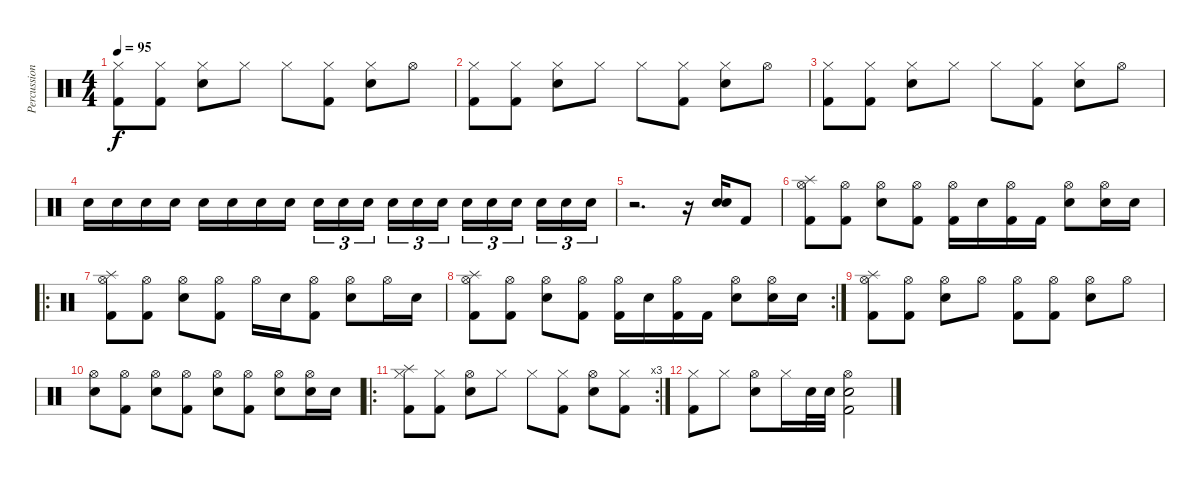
\track ("Percussions" "Percussion") {instrument percussion}
\staff {score}
\articulation defaults
\ts (4 4)
\tempo 95
\clef neutral
\ks c
("Hi-Hat (closed)" "Kick (hit) 2").8{dy f} ("Hi-Hat (closed)" "Kick (hit) 2").8 ("Hi-Hat (closed)" "Snare (hit) 2").8 "Hi-Hat (closed)".8 "Hi-Hat (closed)".8 ("Hi-Hat (closed)" "Kick (hit) 2").8 ("Hi-Hat (closed)" "Snare (hit) 2").8 "Hi-Hat (open)".8 |
("Hi-Hat (closed)" "Kick (hit) 2").8 ("Hi-Hat (closed)" "Kick (hit) 2").8 ("Hi-Hat (closed)" "Snare (hit) 2").8 "Hi-Hat (closed)".8 "Hi-Hat (closed)".8 ("Hi-Hat (closed)" "Kick (hit) 2").8 ("Hi-Hat (closed)" "Snare (hit) 2").8 "Hi-Hat (open)".8 |
("Hi-Hat (closed)" "Kick (hit) 2").8 ("Hi-Hat (closed)" "Kick (hit) 2").8 ("Hi-Hat (closed)" "Snare (hit) 2").8 "Hi-Hat (closed)".8 "Hi-Hat (closed)".8 ("Hi-Hat (closed)" "Kick (hit) 2").8 ("Hi-Hat (closed)" "Snare (hit) 2").8 "Hi-Hat (open)".8 |
"Snare (hit) 2".16 "Snare (hit) 2".16 "Snare (hit) 2".16 "Snare (hit) 2".16 "Snare (hit) 2".16 "Snare (hit) 2".16 "Snare (hit) 2".16 "Snare (hit) 2".16 "Snare (hit) 2".16{tu (3 2)} "Snare (hit) 2".16{tu (3 2)} "Snare (hit) 2".16{tu (3 2)} "Snare (hit) 2".16{tu (3 2)} "Snare (hit) 2".16{tu (3 2)} "Snare (hit) 2".16{tu (3 2)} "Snare (hit) 2".16{tu (3 2)} "Snare (hit) 2".16{tu (3 2)} "Snare (hit) 2".16{tu (3 2)} "Snare (hit) 2".16{tu (3 2)} "Snare (hit) 2".16{tu (3 2)} "Snare (hit) 2".16{tu (3 2)} |
r.2{d} r.16 ("Snare (hit) 2" "Snare (hit) 2").16 "Kick (hit) 2".8 |
("Splash (hit)" "Hi-Hat (open)" "Kick (hit) 2").8 ("Hi-Hat (open)" "Kick (hit) 2").8 ("Hi-Hat (open)" "Snare (hit) 2").8 ("Hi-Hat (open)" "Kick (hit) 2").8 ("Hi-Hat (open)" "Kick (hit) 2").16 "Snare (hit) 2".16 ("Hi-Hat (open)" "Kick (hit) 2").16 "Kick (hit) 2".16 ("Hi-Hat (open)" "Snare (hit) 2").8 ("Hi-Hat (open)" "Snare (hit) 2").16 "Snare (hit) 2".16 |
\ro
("Splash (hit)" "Hi-Hat (open)" "Kick (hit) 2").8 ("Hi-Hat (open)" "Kick (hit) 2").8 ("Hi-Hat (open)" "Snare (hit) 2").8 ("Hi-Hat (open)" "Kick (hit) 2").8 "Hi-Hat (open)".16 "Snare (hit) 2".16 ("Hi-Hat (open)" "Kick (hit) 2").8 ("Hi-Hat (open)" "Snare (hit) 2").8 "Hi-Hat (open)".16 "Snare (hit) 2".16 |
\rc 2
("Splash (hit)" "Hi-Hat (open)" "Kick (hit) 2").8 ("Hi-Hat (open)" "Kick (hit) 2").8 ("Hi-Hat (open)" "Snare (hit) 2").8 ("Hi-Hat (open)" "Kick (hit) 2").8 ("Hi-Hat (open)" "Kick (hit) 2").16 "Snare (hit) 2".16 ("Hi-Hat (open)" "Kick (hit) 2").16 "Kick (hit) 2".16 ("Hi-Hat (open)" "Snare (hit) 2").8 ("Hi-Hat (open)" "Snare (hit) 2").16 "Snare (hit) 2".16 |
("Splash (hit)" "Hi-Hat (open)" "Kick (hit) 2").8 ("Hi-Hat (open)" "Kick (hit) 2").8 ("Hi-Hat (open)" "Snare (hit) 2").8 "Hi-Hat (open)".8 ("Hi-Hat (open)" "Kick (hit) 2").8 ("Hi-Hat (open)" "Kick (hit) 2").8 ("Hi-Hat (open)" "Snare (hit) 2").8 "Hi-Hat (open)".8 |
("Hi-Hat (open)" "Snare (hit) 2").8 ("Hi-Hat (open)" "Kick (hit) 2").8 ("Hi-Hat (open)" "Snare (hit) 2").8 ("Hi-Hat (open)" "Kick (hit) 2").8 ("Hi-Hat (open)" "Snare (hit) 2").8 ("Hi-Hat (open)" "Kick (hit) 2").8 ("Hi-Hat (open)" "Snare (hit) 2").8 ("Hi-Hat (open)" "Snare (hit) 2").16 "Snare (hit) 2".16 |
\ro
\rc 3
("Splash (hit)" "Hi-Hat (closed)" "Kick (hit) 2").8 ("Hi-Hat (closed)" "Kick (hit) 2").8 ("Hi-Hat (open)" "Snare (hit) 2").8 "Hi-Hat (closed)".8 "Hi-Hat (closed)".8 ("Hi-Hat (closed)" "Kick (hit) 2").8 ("Hi-Hat (open)" "Snare (hit) 2").8 ("Hi-Hat (closed)" "Kick (hit) 2").8 |
("Hi-Hat (closed)" "Kick (hit) 2").8 "Hi-Hat (closed)".8 ("Hi-Hat (open)" "Snare (hit) 2").8 "Hi-Hat (closed)".16 "Snare (hit) 2".32 "Snare (hit) 2".32 ("Hi-Hat (open)" "Snare (hit) 2" "Kick (hit) 2").2
